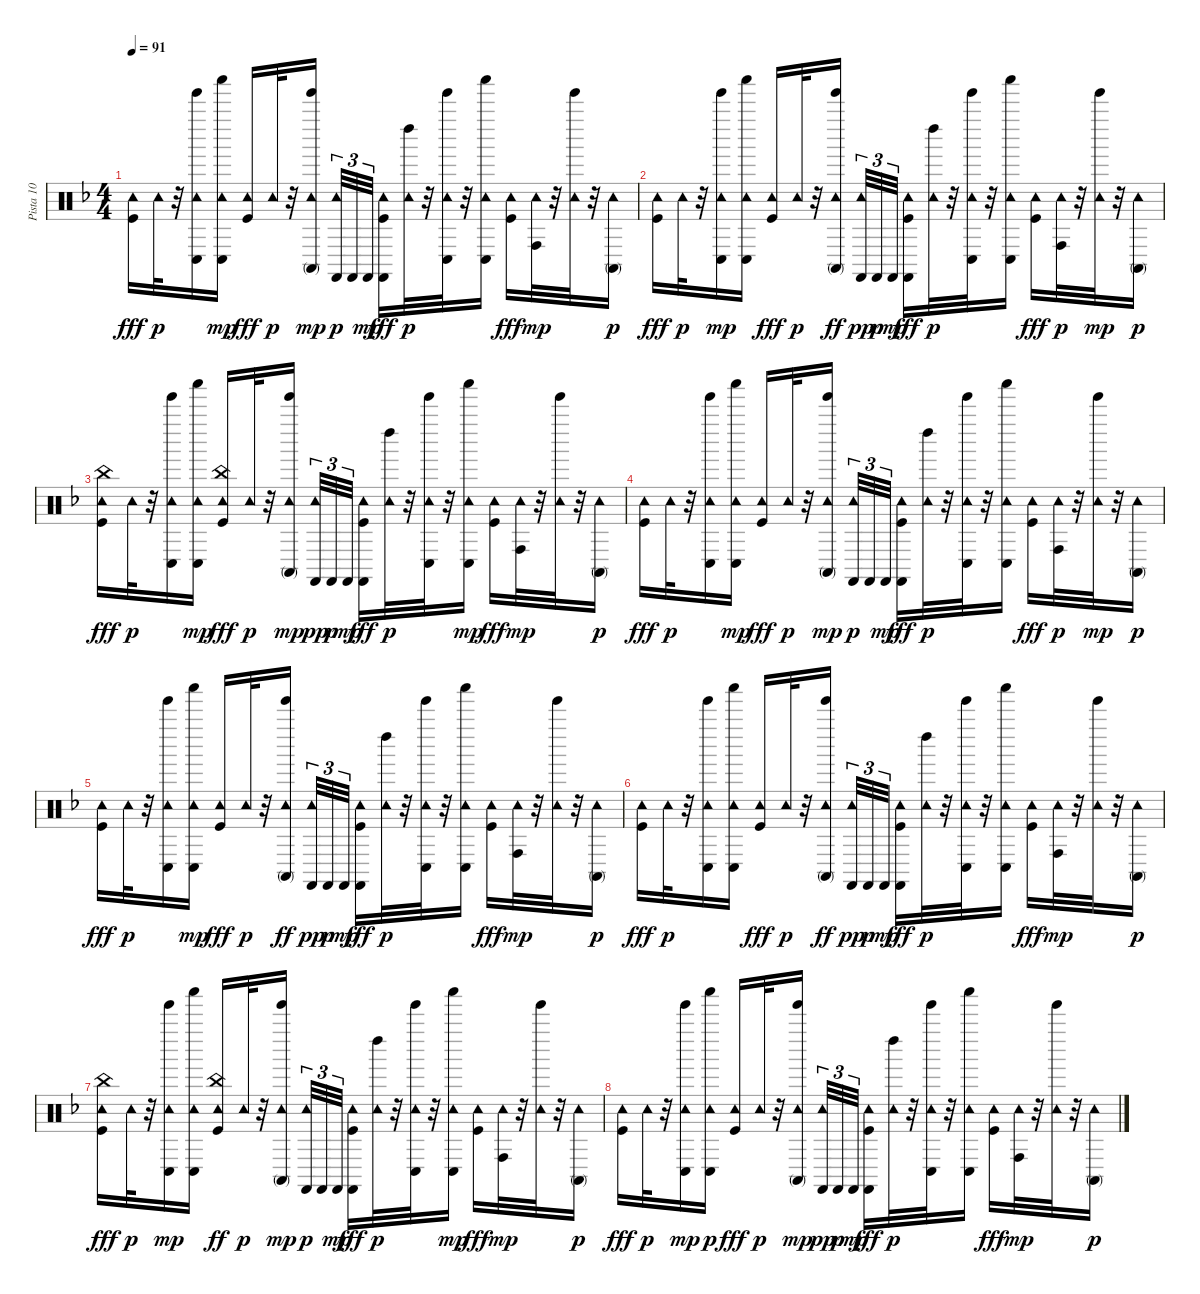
\track ("Pista 10" "Pista 10") {instrument percussion}
\staff {score}
\articulation defaults
\ts (4 4)
\tempo 91
\clef neutral
\ks f
("Tambourine (hit)" "Kick (hit)").16{dy fff} "Tambourine (hit)".32{dy p} r.32 ("Tinkle Bell (hit)" "Tambourine (hit)" "Conga low (hit)").16 ("Shaker (hit)" "Tambourine (hit)" "Conga low (hit)").16{dy mp} ("Tambourine (hit)" "Kick (hit)").16{dy fff} "Tambourine (hit)".32{dy p} r.32 ("Conga high (mute)" "Tambourine (hit)" "Tinkle Bell (hit)").16{dy mp beam splitsecondary} ("Castanets (hit)" "Tambourine (hit)").32{tu (3 2) dy p} "Castanets (hit)".32{tu (3 2)} "Castanets (hit)".32{tu (3 2) dy mp} ("Tambourine (hit)" "Castanets (hit)" "Kick (hit)").16{dy fff} ("Tambourine (hit)" "Left Maraca (hit)").32{dy p} r.32 ("Tinkle Bell (hit)" "Conga low (hit)" "Tambourine (hit)").32 r.32 ("Shaker (hit)" "Tambourine (hit)" "Conga low (hit)").16 ("Tambourine (hit)" "Kick (hit)").16{dy fff} ("Tambourine (hit)" "Conga high (hit)").32{dy mp} r.32 ("Tinkle Bell (hit)" "Tambourine (hit)").32 r.32 ("Conga high (mute)" "Tambourine (hit)").16{dy p} |
("Kick (hit)" "Tambourine (hit)").16{dy fff} "Tambourine (hit)".32{dy p} r.32 ("Conga low (hit)" "Tinkle Bell (hit)" "Tambourine (hit)").16{dy mp} ("Tambourine (hit)" "Shaker (hit)" "Conga low (hit)").16 ("Tambourine (hit)" "Kick (hit)").16{dy fff} "Tambourine (hit)".32{dy p} r.32 ("Tambourine (hit)" "Tinkle Bell (hit)" "Conga high (mute)").16{dy ff beam splitsecondary} ("Tambourine (hit)" "Castanets (hit)").32{tu (3 2) dy pp} "Castanets (hit)".32{tu (3 2) dy p} "Castanets (hit)".32{tu (3 2) dy mp} ("Castanets (hit)" "Tambourine (hit)" "Kick (hit)").16{dy fff} ("Tambourine (hit)" "Left Maraca (hit)").32{dy p} r.32 ("Tambourine (hit)" "Tinkle Bell (hit)" "Conga low (hit)").32 r.32 ("Conga low (hit)" "Shaker (hit)" "Tambourine (hit)").16 ("Tambourine (hit)" "Kick (hit)").16{dy fff} ("Conga high (hit)" "Tambourine (hit)").32{dy p} r.32 ("Tambourine (hit)" "Tinkle Bell (hit)").32{dy mp} r.32 ("Tambourine (hit)" "Conga high (mute)").16{dy p} |
("China (hit)" "Tambourine (hit)" "Kick (hit)").16{dy fff} "Tambourine (hit)".32{dy p} r.32 ("Tambourine (hit)" "Tinkle Bell (hit)" "Conga low (hit)").16 ("Shaker (hit)" "Tambourine (hit)" "Conga low (hit)").16{dy mp} ("China (hit)" "Kick (hit)" "Tambourine (hit)").16{dy fff} "Tambourine (hit)".32{dy p} r.32 ("Conga high (mute)" "Tambourine (hit)" "Tinkle Bell (hit)").16{dy mp beam splitsecondary} ("Tambourine (hit)" "Castanets (hit)").32{tu (3 2) dy pp} "Castanets (hit)".32{tu (3 2) dy p} "Castanets (hit)".32{tu (3 2) dy mp} ("Castanets (hit)" "Kick (hit)" "Tambourine (hit)").16{dy fff} ("Left Maraca (hit)" "Tambourine (hit)").32{dy p} r.32 ("Tambourine (hit)" "Tinkle Bell (hit)" "Conga low (hit)").32 r.32 ("Conga low (hit)" "Tambourine (hit)" "Shaker (hit)").16{dy mp} ("Tambourine (hit)" "Kick (hit)").16{dy fff} ("Tambourine (hit)" "Conga high (hit)").32{dy mp} r.32 ("Tinkle Bell (hit)" "Tambourine (hit)").32 r.32 ("Tambourine (hit)" "Conga high (mute)").16{dy p} |
("Kick (hit)" "Tambourine (hit)").16{dy fff} "Tambourine (hit)".32{dy p} r.32 ("Tinkle Bell (hit)" "Tambourine (hit)" "Conga low (hit)").16 ("Tambourine (hit)" "Shaker (hit)" "Conga low (hit)").16{dy mp} ("Kick (hit)" "Tambourine (hit)").16{dy fff} "Tambourine (hit)".32{dy p} r.32 ("Conga high (mute)" "Tinkle Bell (hit)" "Tambourine (hit)").16{dy mp beam splitsecondary} ("Castanets (hit)" "Tambourine (hit)").32{tu (3 2) dy p} "Castanets (hit)".32{tu (3 2)} "Castanets (hit)".32{tu (3 2) dy mp} ("Kick (hit)" "Tambourine (hit)" "Castanets (hit)").16{dy fff} ("Tambourine (hit)" "Left Maraca (hit)").32{dy p} r.32 ("Tambourine (hit)" "Tinkle Bell (hit)" "Conga low (hit)").32 r.32 ("Conga low (hit)" "Shaker (hit)" "Tambourine (hit)").16 ("Tambourine (hit)" "Kick (hit)").16{dy fff} ("Conga high (hit)" "Tambourine (hit)").32{dy p} r.32 ("Tinkle Bell (hit)" "Tambourine (hit)").32{dy mp} r.32 ("Tambourine (hit)" "Conga high (mute)").16{dy p} |
("Tambourine (hit)" "Kick (hit)").16{dy fff} "Tambourine (hit)".32{dy p} r.32 ("Tambourine (hit)" "Tinkle Bell (hit)" "Conga low (hit)").16 ("Tambourine (hit)" "Shaker (hit)" "Conga low (hit)").16{dy mp} ("Kick (hit)" "Tambourine (hit)").16{dy fff} "Tambourine (hit)".32{dy p} r.32 ("Tambourine (hit)" "Tinkle Bell (hit)" "Conga high (mute)").16{dy ff beam splitsecondary} ("Tambourine (hit)" "Castanets (hit)").32{tu (3 2) dy pp} "Castanets (hit)".32{tu (3 2) dy p} "Castanets (hit)".32{tu (3 2) dy mp} ("Kick (hit)" "Castanets (hit)" "Tambourine (hit)").16{dy fff} ("Left Maraca (hit)" "Tambourine (hit)").32{dy p} r.32 ("Tinkle Bell (hit)" "Conga low (hit)" "Tambourine (hit)").32 r.32 ("Tambourine (hit)" "Shaker (hit)" "Conga low (hit)").16 ("Kick (hit)" "Tambourine (hit)").16{dy fff} ("Tambourine (hit)" "Conga high (hit)").32{dy mp} r.32 ("Tambourine (hit)" "Tinkle Bell (hit)").32 r.32 ("Tambourine (hit)" "Conga high (mute)").16{dy p} |
("Kick (hit)" "Tambourine (hit)").16{dy fff} "Tambourine (hit)".32{dy p} r.32 ("Tambourine (hit)" "Tinkle Bell (hit)" "Conga low (hit)").16 ("Shaker (hit)" "Conga low (hit)" "Tambourine (hit)").16 ("Tambourine (hit)" "Kick (hit)").16{dy fff} "Tambourine (hit)".32{dy p} r.32 ("Tinkle Bell (hit)" "Conga high (mute)" "Tambourine (hit)").16{dy ff beam splitsecondary} ("Tambourine (hit)" "Castanets (hit)").32{tu (3 2) dy pp} "Castanets (hit)".32{tu (3 2) dy p} "Castanets (hit)".32{tu (3 2) dy mp} ("Tambourine (hit)" "Kick (hit)" "Castanets (hit)").16{dy fff} ("Tambourine (hit)" "Left Maraca (hit)").32{dy p} r.32 ("Tambourine (hit)" "Conga low (hit)" "Tinkle Bell (hit)").32 r.32 ("Tambourine (hit)" "Shaker (hit)" "Conga low (hit)").16 ("Kick (hit)" "Tambourine (hit)").16{dy fff} ("Tambourine (hit)" "Conga high (hit)").32{dy mp} r.32 ("Tambourine (hit)" "Tinkle Bell (hit)").32 r.32 ("Tambourine (hit)" "Conga high (mute)").16{dy p} |
("China (hit)" "Tambourine (hit)" "Kick (hit)").16{dy fff} "Tambourine (hit)".32{dy p} r.32 ("Conga low (hit)" "Tambourine (hit)" "Tinkle Bell (hit)").16{dy mp} ("Tambourine (hit)" "Shaker (hit)" "Conga low (hit)").16 ("Kick (hit)" "Tambourine (hit)" "China (hit)").16{dy ff} "Tambourine (hit)".32{dy p} r.32 ("Conga high (mute)" "Tinkle Bell (hit)" "Tambourine (hit)").16{dy mp beam splitsecondary} ("Castanets (hit)" "Tambourine (hit)").32{tu (3 2) dy p} "Castanets (hit)".32{tu (3 2)} "Castanets (hit)".32{tu (3 2) dy mp} ("Castanets (hit)" "Kick (hit)" "Tambourine (hit)").16{dy fff} ("Tambourine (hit)" "Left Maraca (hit)").32{dy p volume 12} r.32 ("Tinkle Bell (hit)" "Tambourine (hit)" "Conga low (hit)").32{volume 12} r.32 ("Conga low (hit)" "Tambourine (hit)" "Shaker (hit)").16{dy mp volume 12} ("Kick (hit)" "Tambourine (hit)").16{dy fff volume 11} ("Tambourine (hit)" "Conga high (hit)").32{dy mp volume 11} r.32 ("Tinkle Bell (hit)" "Tambourine (hit)").32{volume 11} r.32 ("Conga high (mute)" "Tambourine (hit)").16{dy p volume 10} |
("Kick (hit)" "Tambourine (hit)").16{dy fff volume 10} "Tambourine (hit)".32{dy p volume 10} r.32 ("Tambourine (hit)" "Conga low (hit)" "Tinkle Bell (hit)").16{dy mp volume 10} ("Shaker (hit)" "Conga low (hit)" "Tambourine (hit)").16{dy p volume 9} ("Kick (hit)" "Tambourine (hit)").16{dy fff volume 9} "Tambourine (hit)".32{dy p volume 9} r.32 ("Conga high (mute)" "Tinkle Bell (hit)" "Tambourine (hit)").16{dy mp volume 8 beam splitsecondary} ("Tambourine (hit)" "Castanets (hit)").32{tu (3 2) dy pp volume 8} "Castanets (hit)".32{tu (3 2) dy p volume 8} "Castanets (hit)".32{tu (3 2) dy mp volume 8} ("Tambourine (hit)" "Kick (hit)" "Castanets (hit)").16{dy fff volume 8} ("Tambourine (hit)" "Left Maraca (hit)").32{dy p volume 8} r.32 ("Tinkle Bell (hit)" "Tambourine (hit)" "Conga low (hit)").32{volume 7} r.32 ("Shaker (hit)" "Conga low (hit)" "Tambourine (hit)").16{volume 7} ("Kick (hit)" "Tambourine (hit)").16{dy fff volume 7} ("Tambourine (hit)" "Conga high (hit)").32{dy mp volume 6} r.32 ("Tinkle Bell (hit)" "Tambourine (hit)").32{volume 6} r.32 ("Conga high (mute)" "Tambourine (hit)").16{dy p volume 6}
